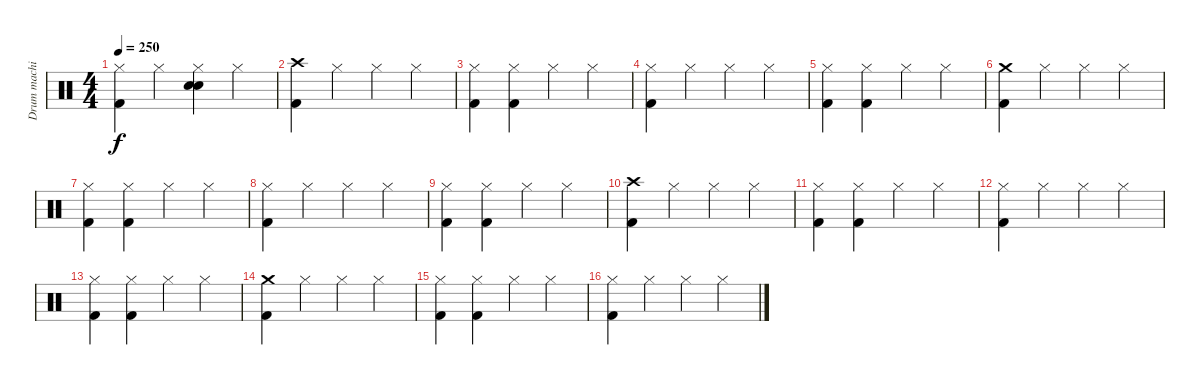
\track ("Drum machine" "Drum machi") {instrument percussion}
\staff {score}
\articulation defaults
\ts (4 4)
\tempo 250
\clef neutral
\ks c
("Hi-Hat (closed)" "Kick (hit) 2").4{dy f} "Hi-Hat (closed)".4 ("Hi-Hat (closed)" "Electric Snare (hit)" "Snare (hit) 2").4 "Hi-Hat (closed)".4 |
("Crash high (hit)" "Kick (hit) 2").4 "Hi-Hat (closed)".4 "Hi-Hat (closed)".4 "Hi-Hat (closed)".4 |
("Hi-Hat (closed)" "Kick (hit) 2").4 ("Hi-Hat (closed)" "Kick (hit) 2").4 "Hi-Hat (closed)".4 "Hi-Hat (closed)".4 |
("Hi-Hat (closed)" "Kick (hit) 2").4 "Hi-Hat (closed)".4 "Hi-Hat (closed)".4 "Hi-Hat (closed)".4 |
("Hi-Hat (closed)" "Kick (hit) 2").4 ("Hi-Hat (closed)" "Kick (hit) 2").4 "Hi-Hat (closed)".4 "Hi-Hat (closed)".4 |
("Crash medium (hit)" "Kick (hit) 2").4 "Hi-Hat (closed)".4 "Hi-Hat (closed)".4 "Hi-Hat (closed)".4 |
("Hi-Hat (closed)" "Kick (hit) 2").4 ("Hi-Hat (closed)" "Kick (hit) 2").4 "Hi-Hat (closed)".4 "Hi-Hat (closed)".4 |
("Hi-Hat (closed)" "Kick (hit) 2").4 "Hi-Hat (closed)".4 "Hi-Hat (closed)".4 "Hi-Hat (closed)".4 |
("Hi-Hat (closed)" "Kick (hit) 2").4 ("Hi-Hat (closed)" "Kick (hit) 2").4 "Hi-Hat (closed)".4 "Hi-Hat (closed)".4 |
("Crash high (hit)" "Kick (hit) 2").4 "Hi-Hat (closed)".4 "Hi-Hat (closed)".4 "Hi-Hat (closed)".4 |
("Hi-Hat (closed)" "Kick (hit) 2").4 ("Hi-Hat (closed)" "Kick (hit) 2").4 "Hi-Hat (closed)".4 "Hi-Hat (closed)".4 |
("Hi-Hat (closed)" "Kick (hit) 2").4 "Hi-Hat (closed)".4 "Hi-Hat (closed)".4 "Hi-Hat (closed)".4 |
("Hi-Hat (closed)" "Kick (hit) 2").4 ("Hi-Hat (closed)" "Kick (hit) 2").4 "Hi-Hat (closed)".4 "Hi-Hat (closed)".4 |
("Crash medium (hit)" "Kick (hit) 2").4 "Hi-Hat (closed)".4 "Hi-Hat (closed)".4 "Hi-Hat (closed)".4 |
("Hi-Hat (closed)" "Kick (hit) 2").4 ("Hi-Hat (closed)" "Kick (hit) 2").4 "Hi-Hat (closed)".4 "Hi-Hat (closed)".4 |
("Hi-Hat (closed)" "Kick (hit) 2").4 "Hi-Hat (closed)".4 "Hi-Hat (closed)".4 "Hi-Hat (closed)".4
